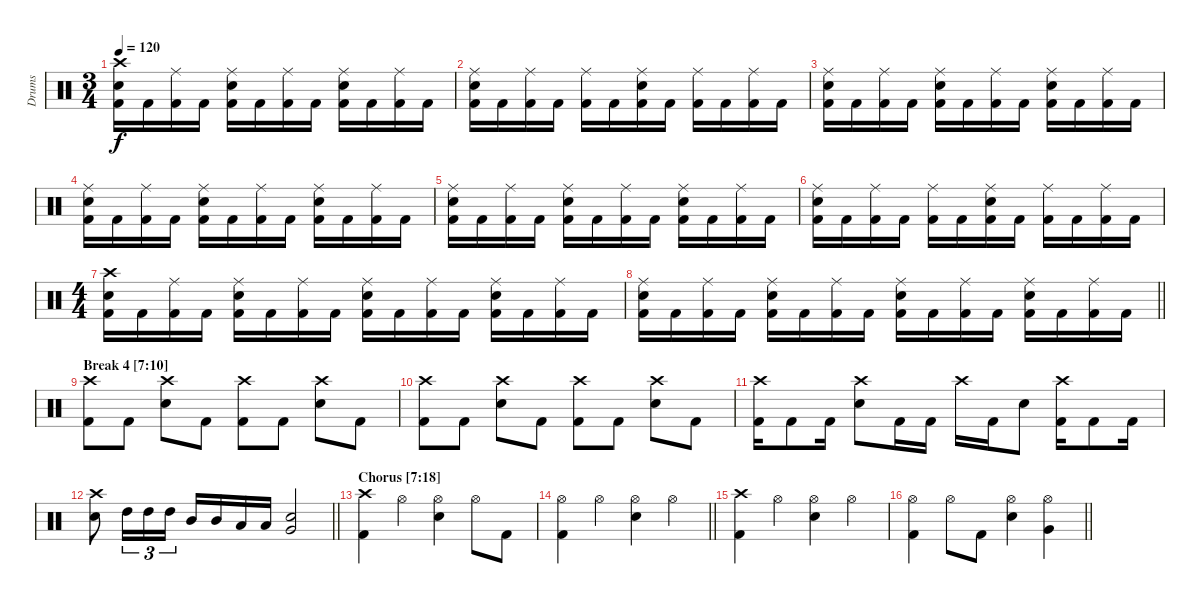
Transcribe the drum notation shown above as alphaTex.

\track ("Drums" "Drums") {instrument percussion}
\staff {score}
\articulation defaults
\ts (3 4)
\tempo 120
\clef neutral
\ks c
("Crash high (hit)" "Snare (hit) 2" "Kick (hit) 2").16{dy f} "Kick (hit) 2".16 ("Ride (middle)" "Kick (hit) 2").16 "Kick (hit) 2".16 ("Ride (middle)" "Snare (hit) 2" "Kick (hit) 2").16 "Kick (hit) 2".16 ("Ride (middle)" "Kick (hit) 2").16 "Kick (hit) 2".16 ("Ride (middle)" "Snare (hit) 2" "Kick (hit) 2").16 "Kick (hit) 2".16 ("Ride (middle)" "Kick (hit) 2").16 "Kick (hit) 2".16 |
("Ride (middle)" "Snare (hit) 2" "Kick (hit) 2").16 "Kick (hit) 2".16 ("Ride (middle)" "Kick (hit) 2").16 "Kick (hit) 2".16 ("Ride (middle)" "Kick (hit) 2").16 "Kick (hit) 2".16 ("Ride (middle)" "Snare (hit) 2" "Kick (hit) 2").16 "Kick (hit) 2".16 ("Ride (middle)" "Kick (hit) 2").16 "Kick (hit) 2".16 ("Ride (middle)" "Kick (hit) 2").16 "Kick (hit) 2".16 |
("Ride (middle)" "Snare (hit) 2" "Kick (hit) 2").16 "Kick (hit) 2".16 ("Ride (middle)" "Kick (hit) 2").16 "Kick (hit) 2".16 ("Ride (middle)" "Snare (hit) 2" "Kick (hit) 2").16 "Kick (hit) 2".16 ("Ride (middle)" "Kick (hit) 2").16 "Kick (hit) 2".16 ("Ride (middle)" "Snare (hit) 2" "Kick (hit) 2").16 "Kick (hit) 2".16 ("Ride (middle)" "Kick (hit) 2").16 "Kick (hit) 2".16 |
("Ride (middle)" "Snare (hit) 2" "Kick (hit) 2").16 "Kick (hit) 2".16 ("Ride (middle)" "Kick (hit) 2").16 "Kick (hit) 2".16 ("Ride (middle)" "Snare (hit) 2" "Kick (hit) 2").16 "Kick (hit) 2".16 ("Ride (middle)" "Kick (hit) 2").16 "Kick (hit) 2".16 ("Ride (middle)" "Snare (hit) 2" "Kick (hit) 2").16 "Kick (hit) 2".16 ("Ride (middle)" "Kick (hit) 2").16 "Kick (hit) 2".16 |
("Ride (middle)" "Snare (hit) 2" "Kick (hit) 2").16 "Kick (hit) 2".16 ("Ride (middle)" "Kick (hit) 2").16 "Kick (hit) 2".16 ("Ride (middle)" "Snare (hit) 2" "Kick (hit) 2").16 "Kick (hit) 2".16 ("Ride (middle)" "Kick (hit) 2").16 "Kick (hit) 2".16 ("Ride (middle)" "Snare (hit) 2" "Kick (hit) 2").16 "Kick (hit) 2".16 ("Ride (middle)" "Kick (hit) 2").16 "Kick (hit) 2".16 |
("Ride (middle)" "Snare (hit) 2" "Kick (hit) 2").16 "Kick (hit) 2".16 ("Ride (middle)" "Kick (hit) 2").16 "Kick (hit) 2".16 ("Ride (middle)" "Kick (hit) 2").16 "Kick (hit) 2".16 ("Ride (middle)" "Snare (hit) 2" "Kick (hit) 2").16 "Kick (hit) 2".16 ("Ride (middle)" "Kick (hit) 2").16 "Kick (hit) 2".16 ("Ride (middle)" "Kick (hit) 2").16 "Kick (hit) 2".16 |
\ts (4 4)
("Crash high (hit)" "Snare (hit) 2" "Kick (hit) 2").16 "Kick (hit) 2".16 ("Ride (middle)" "Kick (hit) 2").16 "Kick (hit) 2".16 ("Ride (middle)" "Snare (hit) 2" "Kick (hit) 2").16 "Kick (hit) 2".16 ("Ride (middle)" "Kick (hit) 2").16 "Kick (hit) 2".16 ("Ride (middle)" "Snare (hit) 2" "Kick (hit) 2").16 "Kick (hit) 2".16 ("Ride (middle)" "Kick (hit) 2").16 "Kick (hit) 2".16 ("Ride (middle)" "Snare (hit) 2" "Kick (hit) 2").16 "Kick (hit) 2".16 ("Ride (middle)" "Kick (hit) 2").16 "Kick (hit) 2".16 |
\barLineRight lightlight
("Ride (middle)" "Snare (hit) 2" "Kick (hit) 2").16 "Kick (hit) 2".16 ("Ride (middle)" "Kick (hit) 2").16 "Kick (hit) 2".16 ("Ride (middle)" "Snare (hit) 2" "Kick (hit) 2").16 "Kick (hit) 2".16 ("Ride (middle)" "Kick (hit) 2").16 "Kick (hit) 2".16 ("Ride (middle)" "Snare (hit) 2" "Kick (hit) 2").16 "Kick (hit) 2".16 ("Ride (middle)" "Kick (hit) 2").16 "Kick (hit) 2".16 ("Ride (middle)" "Snare (hit) 2" "Kick (hit) 2").16 "Kick (hit) 2".16 ("Ride (middle)" "Kick (hit) 2").16 "Kick (hit) 2".16 |
\section ("" "Break 4 [7:10]")
("Crash high (hit)" "Kick (hit) 2").8 "Kick (hit) 2".8 ("Crash high (hit)" "Snare (hit) 2").8 "Kick (hit) 2".8 ("Crash high (hit)" "Kick (hit) 2").8 "Kick (hit) 2".8 ("Crash high (hit)" "Snare (hit) 2").8 "Kick (hit) 2".8 |
("Crash high (hit)" "Kick (hit) 2").8 "Kick (hit) 2".8 ("Crash high (hit)" "Snare (hit) 2").8 "Kick (hit) 2".8 ("Crash high (hit)" "Kick (hit) 2").8 "Kick (hit) 2".8 ("Crash high (hit)" "Snare (hit) 2").8 "Kick (hit) 2".8 |
("Crash high (hit)" "Kick (hit) 2").16 "Kick (hit) 2".8 "Kick (hit) 2".16 ("Crash high (hit)" "Snare (hit) 2").8 "Kick (hit) 2".16 "Kick (hit) 2".16 "Crash high (hit)".16 "Kick (hit) 2".16 "Snare (hit) 2".8 ("Crash high (hit)" "Kick (hit) 2").16 "Kick (hit) 2".8 "Kick (hit) 2".16 |
\barLineRight lightlight
("Crash high (hit)" "Snare (hit) 2").8 "High Tom (hit)".16{tu (3 2)} "High Tom (hit)".16{tu (3 2)} "High Tom (hit)".16{tu (3 2)} "Mid Tom (hit)".16 "Mid Tom (hit)".16 "Low Tom (hit)".16 "Low Tom (hit)".16 ("Very Low Tom (hit)" "Snare (hit) 2").2 |
\section ("" "Chorus [7:18]")
("Crash high (hit)" "Kick (hit) 2").4 "Hi-Hat (open)".4 ("Hi-Hat (open)" "Snare (hit) 2").4 "Hi-Hat (open)".8 "Kick (hit) 2".8 |
\barLineRight lightlight
("Hi-Hat (open)" "Kick (hit) 2").4 "Hi-Hat (open)".4 ("Hi-Hat (open)" "Snare (hit) 2").4 "Hi-Hat (open)".4 |
("Crash high (hit)" "Kick (hit) 2").4 "Hi-Hat (open)".4 ("Hi-Hat (open)" "Snare (hit) 2").4 "Hi-Hat (open)".4 |
\barLineRight lightlight
("Hi-Hat (open)" "Kick (hit) 2").4 "Hi-Hat (open)".8 "Kick (hit) 2".8 ("Hi-Hat (open)" "Snare (hit) 2").4 ("Hi-Hat (open)" "Very Low Tom (hit)").4
